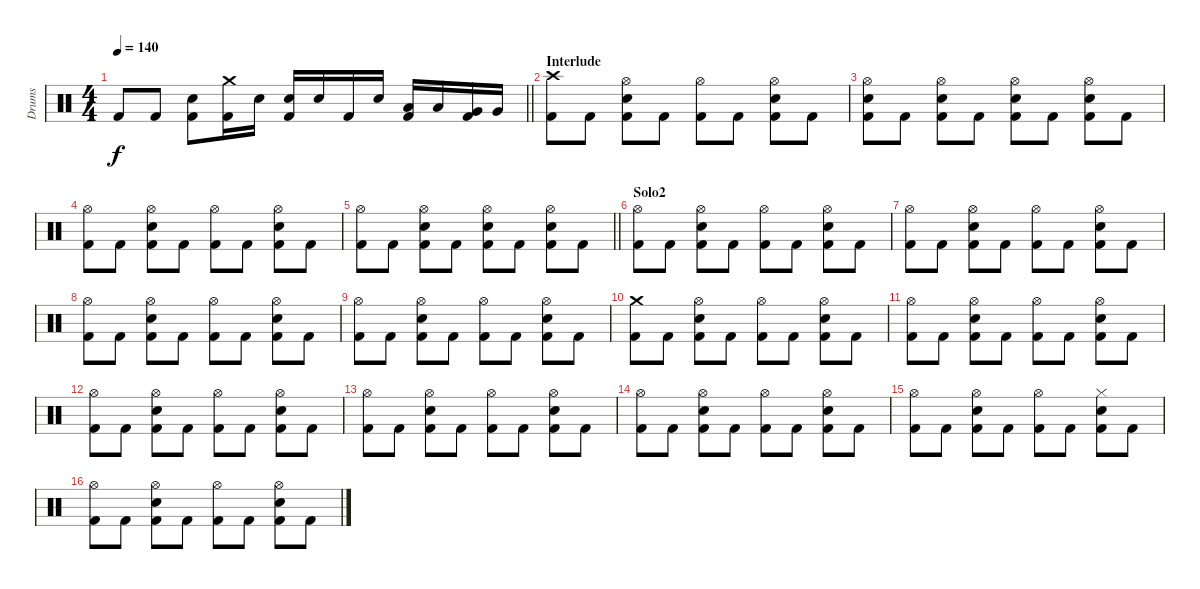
\track ("Drums" "Drums") {instrument percussion}
\staff {score}
\articulation defaults
\ts (4 4)
\tempo 140
\clef neutral
\barLineRight lightlight
\ks c "Kick (hit) 2".8{dy f} "Kick (hit) 2".8
("Snare (hit) 2" "Kick (hit) 2").8 ("Crash medium (hit)" "Kick (hit) 2").16 "Snare (hit) 2".16 ("Snare (hit) 2" "Kick (hit) 2").16 "Snare (hit) 2".16 "Kick (hit) 2".16 "Snare (hit) 2".16 ("Low Tom (hit)" "Kick (hit) 2").16 "Low Tom (hit)".16 ("Very Low Tom (hit)" "Kick (hit) 2").16 "Very Low Tom (hit)".16 |
\section ("" "Interlude")
("Crash high (hit)" "Kick (hit) 2").8 "Kick (hit) 2".8 ("Hi-Hat (open)" "Snare (hit) 2" "Kick (hit) 2").8 "Kick (hit) 2".8 ("Hi-Hat (open)" "Kick (hit) 2").8 "Kick (hit) 2".8 ("Hi-Hat (open)" "Snare (hit) 2" "Kick (hit) 2").8 "Kick (hit) 2".8 |
("Hi-Hat (open)" "Snare (hit) 2" "Kick (hit) 2").8 "Kick (hit) 2".8 ("Hi-Hat (open)" "Snare (hit) 2" "Kick (hit) 2").8 "Kick (hit) 2".8 ("Hi-Hat (open)" "Snare (hit) 2" "Kick (hit) 2").8 "Kick (hit) 2".8 ("Hi-Hat (open)" "Snare (hit) 2" "Kick (hit) 2").8 "Kick (hit) 2".8 |
("Hi-Hat (open)" "Kick (hit) 2").8 "Kick (hit) 2".8 ("Hi-Hat (open)" "Snare (hit) 2" "Kick (hit) 2").8 "Kick (hit) 2".8 ("Hi-Hat (open)" "Kick (hit) 2").8 "Kick (hit) 2".8 ("Hi-Hat (open)" "Snare (hit) 2" "Kick (hit) 2").8 "Kick (hit) 2".8 |
\barLineRight lightlight
("Hi-Hat (open)" "Kick (hit) 2").8 "Kick (hit) 2".8 ("Hi-Hat (open)" "Snare (hit) 2" "Kick (hit) 2").8 "Kick (hit) 2".8 ("Hi-Hat (open)" "Snare (hit) 2" "Kick (hit) 2").8 "Kick (hit) 2".8 ("Hi-Hat (open)" "Snare (hit) 2" "Kick (hit) 2").8 "Kick (hit) 2".8 |
\section ("" "Solo2")
("Hi-Hat (open)" "Kick (hit) 2").8 "Kick (hit) 2".8 ("Hi-Hat (open)" "Snare (hit) 2" "Kick (hit) 2").8 "Kick (hit) 2".8 ("Hi-Hat (open)" "Kick (hit) 2").8 "Kick (hit) 2".8 ("Hi-Hat (open)" "Snare (hit) 2" "Kick (hit) 2").8 "Kick (hit) 2".8 |
("Hi-Hat (open)" "Kick (hit) 2").8 "Kick (hit) 2".8 ("Hi-Hat (open)" "Snare (hit) 2" "Kick (hit) 2").8 "Kick (hit) 2".8 ("Hi-Hat (open)" "Kick (hit) 2").8 "Kick (hit) 2".8 ("Hi-Hat (open)" "Snare (hit) 2" "Kick (hit) 2").8 "Kick (hit) 2".8 |
("Hi-Hat (open)" "Kick (hit) 2").8 "Kick (hit) 2".8 ("Hi-Hat (open)" "Snare (hit) 2" "Kick (hit) 2").8 "Kick (hit) 2".8 ("Hi-Hat (open)" "Kick (hit) 2").8 "Kick (hit) 2".8 ("Hi-Hat (open)" "Snare (hit) 2" "Kick (hit) 2").8 "Kick (hit) 2".8 |
("Hi-Hat (open)" "Kick (hit) 2").8 "Kick (hit) 2".8 ("Hi-Hat (open)" "Snare (hit) 2" "Kick (hit) 2").8 "Kick (hit) 2".8 ("Hi-Hat (open)" "Kick (hit) 2").8 "Kick (hit) 2".8 ("Hi-Hat (open)" "Snare (hit) 2" "Kick (hit) 2").8 "Kick (hit) 2".8 |
("Crash medium (hit)" "Kick (hit) 2").8 "Kick (hit) 2".8 ("Hi-Hat (open)" "Snare (hit) 2" "Kick (hit) 2").8 "Kick (hit) 2".8 ("Hi-Hat (open)" "Kick (hit) 2").8 "Kick (hit) 2".8 ("Hi-Hat (open)" "Snare (hit) 2" "Kick (hit) 2").8 "Kick (hit) 2".8 |
("Hi-Hat (open)" "Kick (hit) 2").8 "Kick (hit) 2".8 ("Hi-Hat (open)" "Snare (hit) 2" "Kick (hit) 2").8 "Kick (hit) 2".8 ("Hi-Hat (open)" "Kick (hit) 2").8 "Kick (hit) 2".8 ("Hi-Hat (open)" "Snare (hit) 2" "Kick (hit) 2").8 "Kick (hit) 2".8 |
("Hi-Hat (open)" "Kick (hit) 2").8 "Kick (hit) 2".8 ("Hi-Hat (open)" "Snare (hit) 2" "Kick (hit) 2").8 "Kick (hit) 2".8 ("Hi-Hat (open)" "Kick (hit) 2").8 "Kick (hit) 2".8 ("Hi-Hat (open)" "Snare (hit) 2" "Kick (hit) 2").8 "Kick (hit) 2".8 |
("Hi-Hat (open)" "Kick (hit) 2").8 "Kick (hit) 2".8 ("Hi-Hat (open)" "Snare (hit) 2" "Kick (hit) 2").8 "Kick (hit) 2".8 ("Hi-Hat (open)" "Kick (hit) 2").8 "Kick (hit) 2".8 ("Hi-Hat (open)" "Snare (hit) 2" "Kick (hit) 2").8 "Kick (hit) 2".8 |
("Hi-Hat (open)" "Kick (hit) 2").8 "Kick (hit) 2".8 ("Hi-Hat (open)" "Snare (hit) 2" "Kick (hit) 2").8 "Kick (hit) 2".8 ("Hi-Hat (open)" "Kick (hit) 2").8 "Kick (hit) 2".8 ("Hi-Hat (open)" "Snare (hit) 2" "Kick (hit) 2").8 "Kick (hit) 2".8 |
("Hi-Hat (open)" "Kick (hit) 2").8 "Kick (hit) 2".8 ("Hi-Hat (open)" "Snare (hit) 2" "Kick (hit) 2").8 "Kick (hit) 2".8 ("Hi-Hat (open)" "Kick (hit) 2").8 "Kick (hit) 2".8 ("Hi-Hat (closed)" "Snare (hit) 2" "Kick (hit) 2").8 "Kick (hit) 2".8 |
("Hi-Hat (open)" "Kick (hit) 2").8 "Kick (hit) 2".8 ("Hi-Hat (open)" "Snare (hit) 2" "Kick (hit) 2").8 "Kick (hit) 2".8 ("Hi-Hat (open)" "Kick (hit) 2").8 "Kick (hit) 2".8 ("Hi-Hat (open)" "Snare (hit) 2" "Kick (hit) 2").8 "Kick (hit) 2".8
